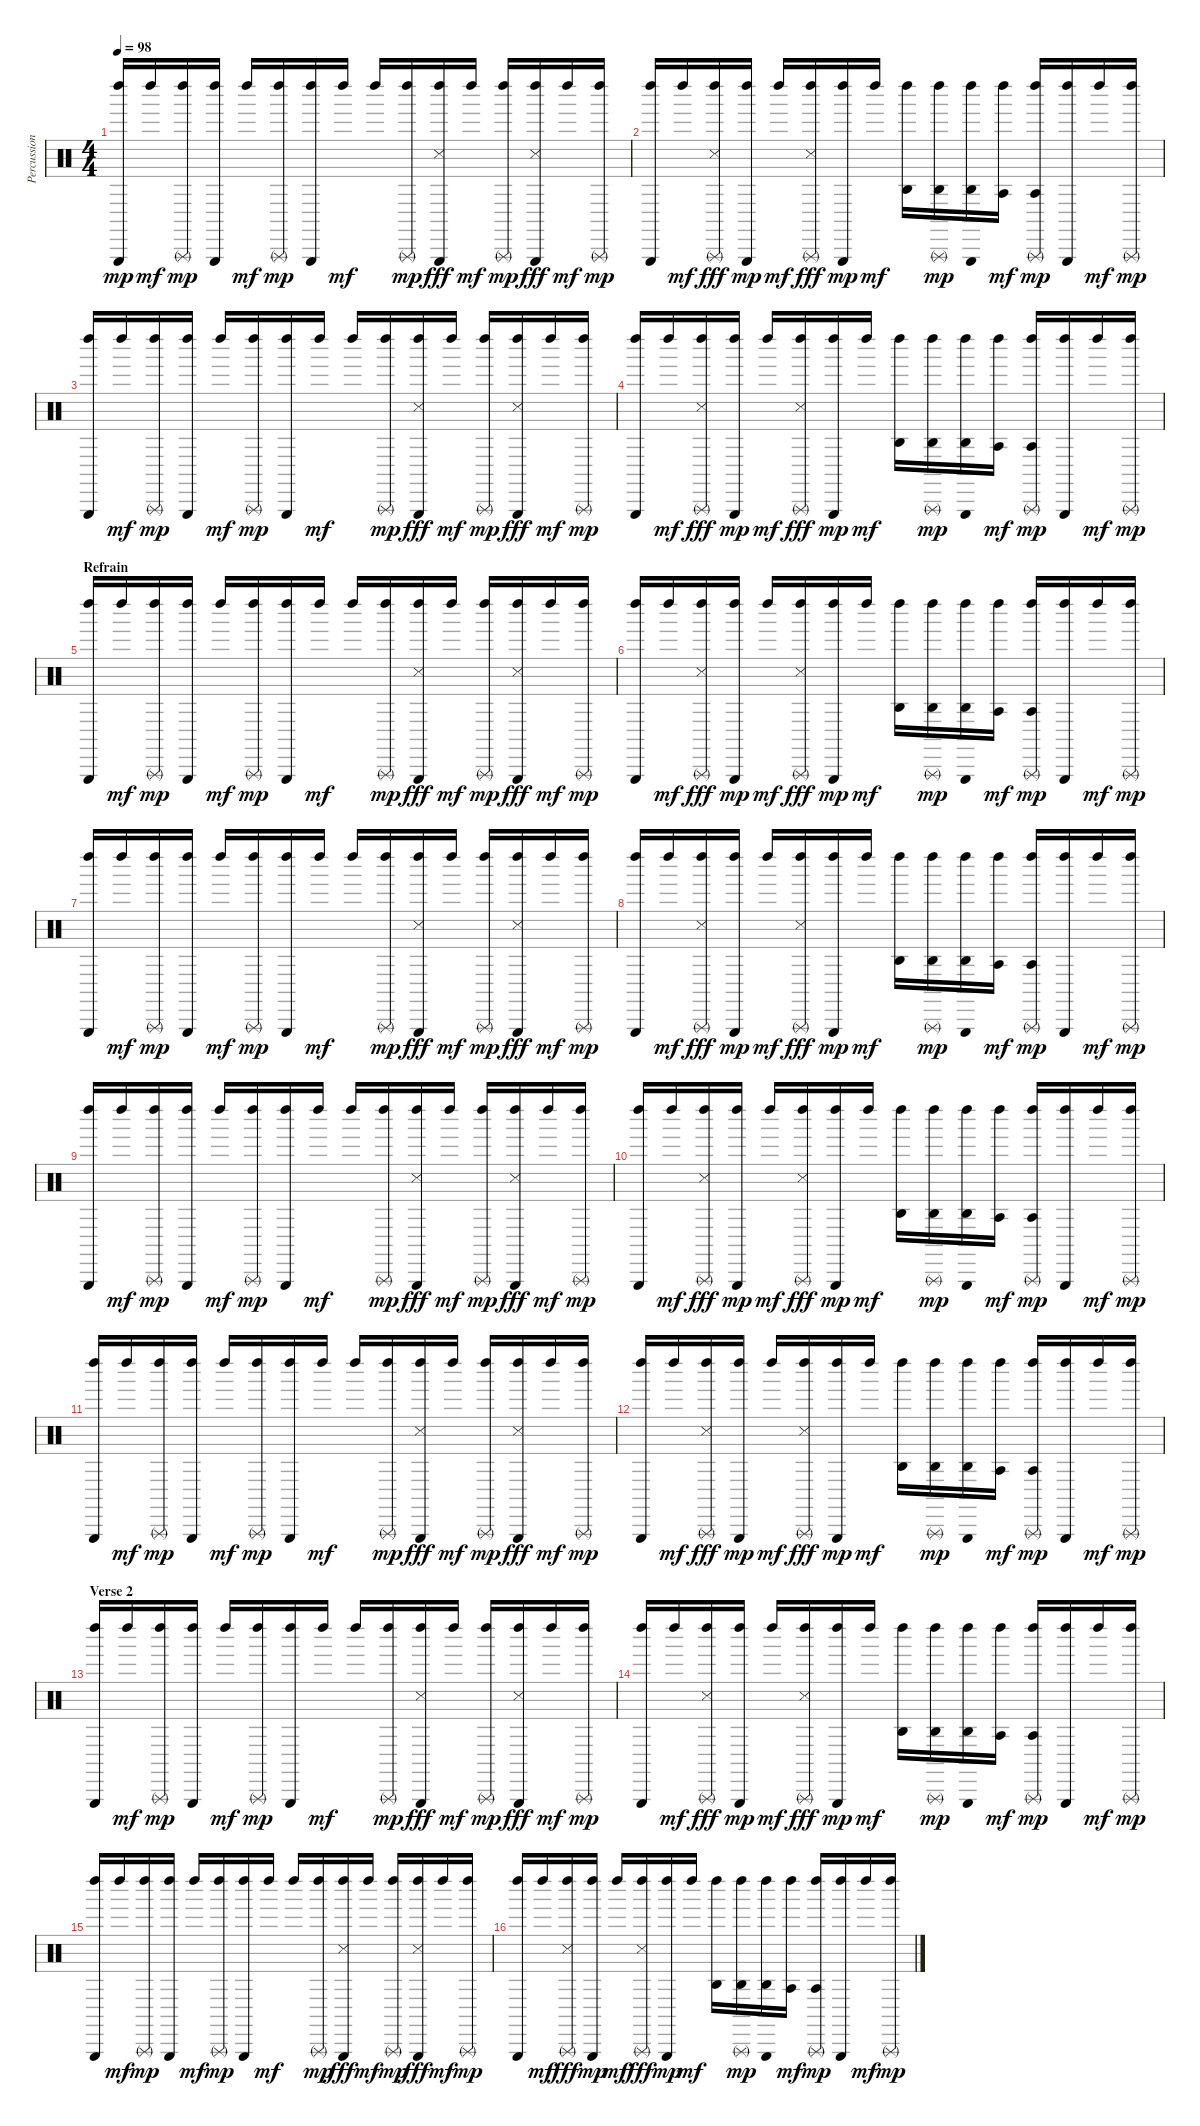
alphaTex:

\track ("Percussions" "Percussion") {instrument percussion}
\staff {score}
\articulation defaults
\ts (4 4)
\tempo 98
\clef neutral
\ks c
("Left Maraca (hit)" "Triangle (hit)").16{dy mp} "Left Maraca (hit)".16{dy mf} ("Left Maraca (hit)" "Triangle (rnute)").16{dy mp} ("Left Maraca (hit)" "Triangle (hit)").16 "Left Maraca (hit)".16{dy mf} ("Left Maraca (hit)" "Triangle (rnute)").16{dy mp} ("Left Maraca (hit)" "Triangle (hit)").16 "Left Maraca (hit)".16{dy mf} "Left Maraca (hit)".16 ("Left Maraca (hit)" "Triangle (rnute)").16{dy mp} ("Left Maraca (hit)" "Triangle (hit)" "Snare (side stick) 3").16{dy fff} "Left Maraca (hit)".16{dy mf} ("Left Maraca (hit)" "Triangle (rnute)").16{dy mp} ("Left Maraca (hit)" "Triangle (hit)" "Snare (side stick) 3").16{dy fff} "Left Maraca (hit)".16{dy mf} ("Left Maraca (hit)" "Triangle (rnute)").16{dy mp} |
("Left Maraca (hit)" "Triangle (hit)").16 "Left Maraca (hit)".16{dy mf} ("Left Maraca (hit)" "Triangle (rnute)" "Snare (side stick) 3").16{dy fff} ("Left Maraca (hit)" "Triangle (hit)").16{dy mp} "Left Maraca (hit)".16{dy mf} ("Left Maraca (hit)" "Triangle (rnute)" "Snare (side stick) 3").16{dy fff} ("Left Maraca (hit)" "Triangle (hit)").16{dy mp} "Left Maraca (hit)".16{dy mf} ("Left Maraca (hit)" "Agogo high (hit)").16 ("Left Maraca (hit)" "Triangle (rnute)" "Agogo high (hit)").16{dy mp} ("Left Maraca (hit)" "Triangle (hit)" "Agogo high (hit)").16 ("Left Maraca (hit)" "Agogo tow (hit)").16{dy mf} ("Left Maraca (hit)" "Triangle (rnute)" "Agogo tow (hit)").16{dy mp} ("Left Maraca (hit)" "Triangle (hit)").16 "Left Maraca (hit)".16{dy mf} ("Left Maraca (hit)" "Triangle (rnute)").16{dy mp} |
("Left Maraca (hit)" "Triangle (hit)").16 "Left Maraca (hit)".16{dy mf} ("Left Maraca (hit)" "Triangle (rnute)").16{dy mp} ("Left Maraca (hit)" "Triangle (hit)").16 "Left Maraca (hit)".16{dy mf} ("Left Maraca (hit)" "Triangle (rnute)").16{dy mp} ("Left Maraca (hit)" "Triangle (hit)").16 "Left Maraca (hit)".16{dy mf} "Left Maraca (hit)".16 ("Left Maraca (hit)" "Triangle (rnute)").16{dy mp} ("Left Maraca (hit)" "Triangle (hit)" "Snare (side stick) 3").16{dy fff} "Left Maraca (hit)".16{dy mf} ("Left Maraca (hit)" "Triangle (rnute)").16{dy mp} ("Left Maraca (hit)" "Triangle (hit)" "Snare (side stick) 3").16{dy fff} "Left Maraca (hit)".16{dy mf} ("Left Maraca (hit)" "Triangle (rnute)").16{dy mp} |
("Left Maraca (hit)" "Triangle (hit)").16 "Left Maraca (hit)".16{dy mf} ("Left Maraca (hit)" "Triangle (rnute)" "Snare (side stick) 3").16{dy fff} ("Left Maraca (hit)" "Triangle (hit)").16{dy mp} "Left Maraca (hit)".16{dy mf} ("Left Maraca (hit)" "Triangle (rnute)" "Snare (side stick) 3").16{dy fff} ("Left Maraca (hit)" "Triangle (hit)").16{dy mp} "Left Maraca (hit)".16{dy mf} ("Left Maraca (hit)" "Agogo high (hit)").16 ("Left Maraca (hit)" "Triangle (rnute)" "Agogo high (hit)").16{dy mp} ("Left Maraca (hit)" "Triangle (hit)" "Agogo high (hit)").16 ("Left Maraca (hit)" "Agogo tow (hit)").16{dy mf} ("Left Maraca (hit)" "Triangle (rnute)" "Agogo tow (hit)").16{dy mp} ("Left Maraca (hit)" "Triangle (hit)").16 "Left Maraca (hit)".16{dy mf} ("Left Maraca (hit)" "Triangle (rnute)").16{dy mp} |
\section ("" "Refrain")
("Left Maraca (hit)" "Triangle (hit)").16 "Left Maraca (hit)".16{dy mf} ("Left Maraca (hit)" "Triangle (rnute)").16{dy mp} ("Left Maraca (hit)" "Triangle (hit)").16 "Left Maraca (hit)".16{dy mf} ("Left Maraca (hit)" "Triangle (rnute)").16{dy mp} ("Left Maraca (hit)" "Triangle (hit)").16 "Left Maraca (hit)".16{dy mf} "Left Maraca (hit)".16 ("Left Maraca (hit)" "Triangle (rnute)").16{dy mp} ("Left Maraca (hit)" "Triangle (hit)" "Snare (side stick) 3").16{dy fff} "Left Maraca (hit)".16{dy mf} ("Left Maraca (hit)" "Triangle (rnute)").16{dy mp} ("Left Maraca (hit)" "Triangle (hit)" "Snare (side stick) 3").16{dy fff} "Left Maraca (hit)".16{dy mf} ("Left Maraca (hit)" "Triangle (rnute)").16{dy mp} |
("Left Maraca (hit)" "Triangle (hit)").16 "Left Maraca (hit)".16{dy mf} ("Left Maraca (hit)" "Triangle (rnute)" "Snare (side stick) 3").16{dy fff} ("Left Maraca (hit)" "Triangle (hit)").16{dy mp} "Left Maraca (hit)".16{dy mf} ("Left Maraca (hit)" "Triangle (rnute)" "Snare (side stick) 3").16{dy fff} ("Left Maraca (hit)" "Triangle (hit)").16{dy mp} "Left Maraca (hit)".16{dy mf} ("Left Maraca (hit)" "Agogo high (hit)").16 ("Left Maraca (hit)" "Triangle (rnute)" "Agogo high (hit)").16{dy mp} ("Left Maraca (hit)" "Triangle (hit)" "Agogo high (hit)").16 ("Left Maraca (hit)" "Agogo tow (hit)").16{dy mf} ("Left Maraca (hit)" "Triangle (rnute)" "Agogo tow (hit)").16{dy mp} ("Left Maraca (hit)" "Triangle (hit)").16 "Left Maraca (hit)".16{dy mf} ("Left Maraca (hit)" "Triangle (rnute)").16{dy mp} |
("Left Maraca (hit)" "Triangle (hit)").16 "Left Maraca (hit)".16{dy mf} ("Left Maraca (hit)" "Triangle (rnute)").16{dy mp} ("Left Maraca (hit)" "Triangle (hit)").16 "Left Maraca (hit)".16{dy mf} ("Left Maraca (hit)" "Triangle (rnute)").16{dy mp} ("Left Maraca (hit)" "Triangle (hit)").16 "Left Maraca (hit)".16{dy mf} "Left Maraca (hit)".16 ("Left Maraca (hit)" "Triangle (rnute)").16{dy mp} ("Left Maraca (hit)" "Triangle (hit)" "Snare (side stick) 3").16{dy fff} "Left Maraca (hit)".16{dy mf} ("Left Maraca (hit)" "Triangle (rnute)").16{dy mp} ("Left Maraca (hit)" "Triangle (hit)" "Snare (side stick) 3").16{dy fff} "Left Maraca (hit)".16{dy mf} ("Left Maraca (hit)" "Triangle (rnute)").16{dy mp} |
("Left Maraca (hit)" "Triangle (hit)").16 "Left Maraca (hit)".16{dy mf} ("Left Maraca (hit)" "Triangle (rnute)" "Snare (side stick) 3").16{dy fff} ("Left Maraca (hit)" "Triangle (hit)").16{dy mp} "Left Maraca (hit)".16{dy mf} ("Left Maraca (hit)" "Triangle (rnute)" "Snare (side stick) 3").16{dy fff} ("Left Maraca (hit)" "Triangle (hit)").16{dy mp} "Left Maraca (hit)".16{dy mf} ("Left Maraca (hit)" "Agogo high (hit)").16 ("Left Maraca (hit)" "Triangle (rnute)" "Agogo high (hit)").16{dy mp} ("Left Maraca (hit)" "Triangle (hit)" "Agogo high (hit)").16 ("Left Maraca (hit)" "Agogo tow (hit)").16{dy mf} ("Left Maraca (hit)" "Triangle (rnute)" "Agogo tow (hit)").16{dy mp} ("Left Maraca (hit)" "Triangle (hit)").16 "Left Maraca (hit)".16{dy mf} ("Left Maraca (hit)" "Triangle (rnute)").16{dy mp} |
("Left Maraca (hit)" "Triangle (hit)").16 "Left Maraca (hit)".16{dy mf} ("Left Maraca (hit)" "Triangle (rnute)").16{dy mp} ("Left Maraca (hit)" "Triangle (hit)").16 "Left Maraca (hit)".16{dy mf} ("Left Maraca (hit)" "Triangle (rnute)").16{dy mp} ("Left Maraca (hit)" "Triangle (hit)").16 "Left Maraca (hit)".16{dy mf} "Left Maraca (hit)".16 ("Left Maraca (hit)" "Triangle (rnute)").16{dy mp} ("Left Maraca (hit)" "Triangle (hit)" "Snare (side stick) 3").16{dy fff} "Left Maraca (hit)".16{dy mf} ("Left Maraca (hit)" "Triangle (rnute)").16{dy mp} ("Left Maraca (hit)" "Triangle (hit)" "Snare (side stick) 3").16{dy fff} "Left Maraca (hit)".16{dy mf} ("Left Maraca (hit)" "Triangle (rnute)").16{dy mp} |
("Left Maraca (hit)" "Triangle (hit)").16 "Left Maraca (hit)".16{dy mf} ("Left Maraca (hit)" "Triangle (rnute)" "Snare (side stick) 3").16{dy fff} ("Left Maraca (hit)" "Triangle (hit)").16{dy mp} "Left Maraca (hit)".16{dy mf} ("Left Maraca (hit)" "Triangle (rnute)" "Snare (side stick) 3").16{dy fff} ("Left Maraca (hit)" "Triangle (hit)").16{dy mp} "Left Maraca (hit)".16{dy mf} ("Left Maraca (hit)" "Agogo high (hit)").16 ("Left Maraca (hit)" "Triangle (rnute)" "Agogo high (hit)").16{dy mp} ("Left Maraca (hit)" "Triangle (hit)" "Agogo high (hit)").16 ("Left Maraca (hit)" "Agogo tow (hit)").16{dy mf} ("Left Maraca (hit)" "Triangle (rnute)" "Agogo tow (hit)").16{dy mp} ("Left Maraca (hit)" "Triangle (hit)").16 "Left Maraca (hit)".16{dy mf} ("Left Maraca (hit)" "Triangle (rnute)").16{dy mp} |
("Left Maraca (hit)" "Triangle (hit)").16 "Left Maraca (hit)".16{dy mf} ("Left Maraca (hit)" "Triangle (rnute)").16{dy mp} ("Left Maraca (hit)" "Triangle (hit)").16 "Left Maraca (hit)".16{dy mf} ("Left Maraca (hit)" "Triangle (rnute)").16{dy mp} ("Left Maraca (hit)" "Triangle (hit)").16 "Left Maraca (hit)".16{dy mf} "Left Maraca (hit)".16 ("Left Maraca (hit)" "Triangle (rnute)").16{dy mp} ("Left Maraca (hit)" "Triangle (hit)" "Snare (side stick) 3").16{dy fff} "Left Maraca (hit)".16{dy mf} ("Left Maraca (hit)" "Triangle (rnute)").16{dy mp} ("Left Maraca (hit)" "Triangle (hit)" "Snare (side stick) 3").16{dy fff} "Left Maraca (hit)".16{dy mf} ("Left Maraca (hit)" "Triangle (rnute)").16{dy mp} |
("Left Maraca (hit)" "Triangle (hit)").16 "Left Maraca (hit)".16{dy mf} ("Left Maraca (hit)" "Triangle (rnute)" "Snare (side stick) 3").16{dy fff} ("Left Maraca (hit)" "Triangle (hit)").16{dy mp} "Left Maraca (hit)".16{dy mf} ("Left Maraca (hit)" "Triangle (rnute)" "Snare (side stick) 3").16{dy fff} ("Left Maraca (hit)" "Triangle (hit)").16{dy mp} "Left Maraca (hit)".16{dy mf} ("Left Maraca (hit)" "Agogo high (hit)").16 ("Left Maraca (hit)" "Triangle (rnute)" "Agogo high (hit)").16{dy mp} ("Left Maraca (hit)" "Triangle (hit)" "Agogo high (hit)").16 ("Left Maraca (hit)" "Agogo tow (hit)").16{dy mf} ("Left Maraca (hit)" "Triangle (rnute)" "Agogo tow (hit)").16{dy mp} ("Left Maraca (hit)" "Triangle (hit)").16 "Left Maraca (hit)".16{dy mf} ("Left Maraca (hit)" "Triangle (rnute)").16{dy mp} |
\section ("" "Verse 2")
("Left Maraca (hit)" "Triangle (hit)").16 "Left Maraca (hit)".16{dy mf} ("Left Maraca (hit)" "Triangle (rnute)").16{dy mp} ("Left Maraca (hit)" "Triangle (hit)").16 "Left Maraca (hit)".16{dy mf} ("Left Maraca (hit)" "Triangle (rnute)").16{dy mp} ("Left Maraca (hit)" "Triangle (hit)").16 "Left Maraca (hit)".16{dy mf} "Left Maraca (hit)".16 ("Left Maraca (hit)" "Triangle (rnute)").16{dy mp} ("Left Maraca (hit)" "Triangle (hit)" "Snare (side stick) 3").16{dy fff} "Left Maraca (hit)".16{dy mf} ("Left Maraca (hit)" "Triangle (rnute)").16{dy mp} ("Left Maraca (hit)" "Triangle (hit)" "Snare (side stick) 3").16{dy fff} "Left Maraca (hit)".16{dy mf} ("Left Maraca (hit)" "Triangle (rnute)").16{dy mp} |
("Left Maraca (hit)" "Triangle (hit)").16 "Left Maraca (hit)".16{dy mf} ("Left Maraca (hit)" "Triangle (rnute)" "Snare (side stick) 3").16{dy fff} ("Left Maraca (hit)" "Triangle (hit)").16{dy mp} "Left Maraca (hit)".16{dy mf} ("Left Maraca (hit)" "Triangle (rnute)" "Snare (side stick) 3").16{dy fff} ("Left Maraca (hit)" "Triangle (hit)").16{dy mp} "Left Maraca (hit)".16{dy mf} ("Left Maraca (hit)" "Agogo high (hit)").16 ("Left Maraca (hit)" "Triangle (rnute)" "Agogo high (hit)").16{dy mp} ("Left Maraca (hit)" "Triangle (hit)" "Agogo high (hit)").16 ("Left Maraca (hit)" "Agogo tow (hit)").16{dy mf} ("Left Maraca (hit)" "Triangle (rnute)" "Agogo tow (hit)").16{dy mp} ("Left Maraca (hit)" "Triangle (hit)").16 "Left Maraca (hit)".16{dy mf} ("Left Maraca (hit)" "Triangle (rnute)").16{dy mp} |
("Left Maraca (hit)" "Triangle (hit)").16 "Left Maraca (hit)".16{dy mf} ("Left Maraca (hit)" "Triangle (rnute)").16{dy mp} ("Left Maraca (hit)" "Triangle (hit)").16 "Left Maraca (hit)".16{dy mf} ("Left Maraca (hit)" "Triangle (rnute)").16{dy mp} ("Left Maraca (hit)" "Triangle (hit)").16 "Left Maraca (hit)".16{dy mf} "Left Maraca (hit)".16 ("Left Maraca (hit)" "Triangle (rnute)").16{dy mp} ("Left Maraca (hit)" "Triangle (hit)" "Snare (side stick) 3").16{dy fff} "Left Maraca (hit)".16{dy mf} ("Left Maraca (hit)" "Triangle (rnute)").16{dy mp} ("Left Maraca (hit)" "Triangle (hit)" "Snare (side stick) 3").16{dy fff} "Left Maraca (hit)".16{dy mf} ("Left Maraca (hit)" "Triangle (rnute)").16{dy mp} |
("Left Maraca (hit)" "Triangle (hit)").16 "Left Maraca (hit)".16{dy mf} ("Left Maraca (hit)" "Triangle (rnute)" "Snare (side stick) 3").16{dy fff} ("Left Maraca (hit)" "Triangle (hit)").16{dy mp} "Left Maraca (hit)".16{dy mf} ("Left Maraca (hit)" "Triangle (rnute)" "Snare (side stick) 3").16{dy fff} ("Left Maraca (hit)" "Triangle (hit)").16{dy mp} "Left Maraca (hit)".16{dy mf} ("Left Maraca (hit)" "Agogo high (hit)").16 ("Left Maraca (hit)" "Triangle (rnute)" "Agogo high (hit)").16{dy mp} ("Left Maraca (hit)" "Triangle (hit)" "Agogo high (hit)").16 ("Left Maraca (hit)" "Agogo tow (hit)").16{dy mf} ("Left Maraca (hit)" "Triangle (rnute)" "Agogo tow (hit)").16{dy mp} ("Left Maraca (hit)" "Triangle (hit)").16 "Left Maraca (hit)".16{dy mf} ("Left Maraca (hit)" "Triangle (rnute)").16{dy mp}
